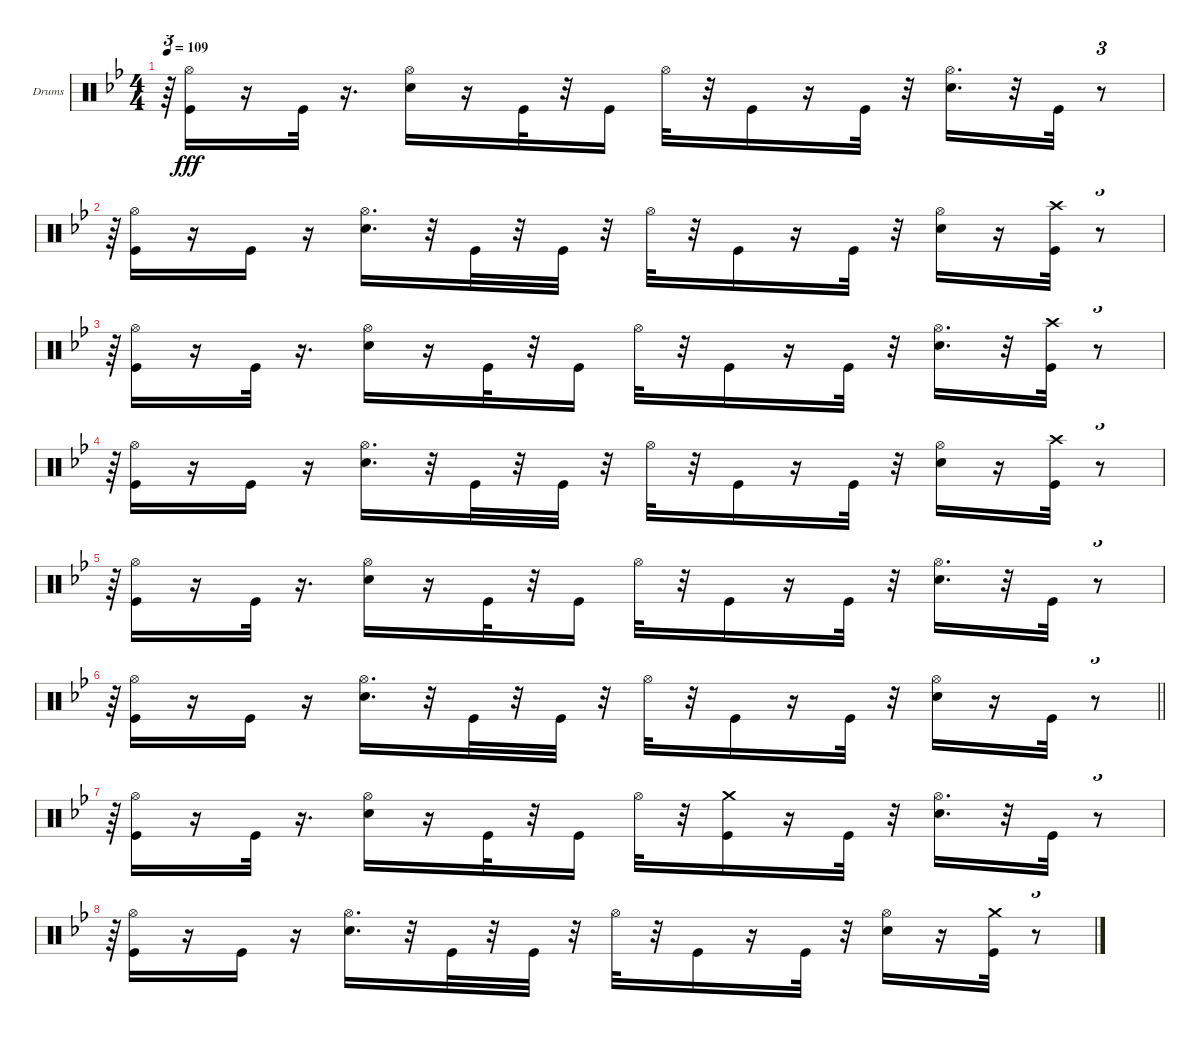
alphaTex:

\bracketExtendMode groupsimilarinstruments
\firstSystemTrackNameOrientation horizontal
\otherSystemsTrackNameOrientation horizontal
\track ("Drumkit" "Drums") {instrument percussion}
\staff {score}
\articulation defaults
\ts (4 4)
\tempo 109
\clef neutral
\ks gminor
r.64{tu (3 2) dy fff} ("Kick (hit)" "Hi-Hat (open)").16 r.16 "Kick (hit)".32 r.16{d} ("Snare (hit) 2" "Hi-Hat (open)").16 r.16 "Kick (hit)".32 r.32 "Kick (hit)".16 "Hi-Hat (open)".32 r.32 "Kick (hit)".16 r.16 "Kick (hit)".32 r.32 ("Snare (hit) 2" "Hi-Hat (open)").16{d} r.32 "Kick (hit)".32 r.8{tu (3 2)} |
r.64{tu (3 2)} ("Kick (hit)" "Hi-Hat (open)").16 r.16 "Kick (hit)".16 r.16 ("Snare (hit) 2" "Hi-Hat (open)").16{d} r.32 "Kick (hit)".32 r.32 "Kick (hit)".32 r.32 "Hi-Hat (open)".32 r.32 "Kick (hit)".16 r.16 "Kick (hit)".32 r.32 ("Snare (hit) 2" "Hi-Hat (open)").16 r.16 ("Kick (hit)" "Crash high (hit)").32 r.8{tu (3 2)} |
r.64{tu (3 2)} ("Kick (hit)" "Hi-Hat (open)").16 r.16 "Kick (hit)".32 r.16{d} ("Snare (hit) 2" "Hi-Hat (open)").16 r.16 "Kick (hit)".32 r.32 "Kick (hit)".16 "Hi-Hat (open)".32 r.32 "Kick (hit)".16 r.16 "Kick (hit)".32 r.32 ("Snare (hit) 2" "Hi-Hat (open)").16{d} r.32 ("Kick (hit)" "Crash high (hit)").32 r.8{tu (3 2)} |
r.64{tu (3 2)} ("Kick (hit)" "Hi-Hat (open)").16 r.16 "Kick (hit)".16 r.16 ("Snare (hit) 2" "Hi-Hat (open)").16{d} r.32 "Kick (hit)".32 r.32 "Kick (hit)".32 r.32 "Hi-Hat (open)".32 r.32 "Kick (hit)".16 r.16 "Kick (hit)".32 r.32 ("Snare (hit) 2" "Hi-Hat (open)").16 r.16 ("Kick (hit)" "Crash high (hit)").32 r.8{tu (3 2)} |
r.64{tu (3 2)} ("Kick (hit)" "Hi-Hat (open)").16 r.16 "Kick (hit)".32 r.16{d} ("Snare (hit) 2" "Hi-Hat (open)").16 r.16 "Kick (hit)".32 r.32 "Kick (hit)".16 "Hi-Hat (open)".32 r.32 "Kick (hit)".16 r.16 "Kick (hit)".32 r.32 ("Snare (hit) 2" "Hi-Hat (open)").16{d} r.32 "Kick (hit)".32 r.8{tu (3 2)} |
\barLineRight lightlight
r.64{tu (3 2)} ("Kick (hit)" "Hi-Hat (open)").16 r.16 "Kick (hit)".16 r.16 ("Snare (hit) 2" "Hi-Hat (open)").16{d} r.32 "Kick (hit)".32 r.32 "Kick (hit)".32 r.32 "Hi-Hat (open)".32 r.32 "Kick (hit)".16 r.16 "Kick (hit)".32 r.32 ("Snare (hit) 2" "Hi-Hat (open)").16 r.16 "Kick (hit)".32 r.8{tu (3 2)} |
r.64{tu (3 2)} ("Kick (hit)" "Hi-Hat (open)").16 r.16 "Kick (hit)".32 r.16{d} ("Snare (hit) 2" "Hi-Hat (open)").16 r.16 "Kick (hit)".32 r.32 "Kick (hit)".16 "Hi-Hat (open)".32 r.32 ("Kick (hit)" "Crash medium (hit)").16 r.16 "Kick (hit)".32 r.32 ("Snare (hit) 2" "Hi-Hat (open)").16{d} r.32 "Kick (hit)".32 r.8{tu (3 2)} |
r.64{tu (3 2)} ("Kick (hit)" "Hi-Hat (open)").16 r.16 "Kick (hit)".16 r.16 ("Snare (hit) 2" "Hi-Hat (open)").16{d} r.32 "Kick (hit)".32 r.32 "Kick (hit)".32 r.32 "Hi-Hat (open)".32 r.32 "Kick (hit)".16 r.16 "Kick (hit)".32 r.32 ("Snare (hit) 2" "Hi-Hat (open)").16 r.16 ("Kick (hit)" "Crash medium (hit)").32 r.8{tu (3 2)}
